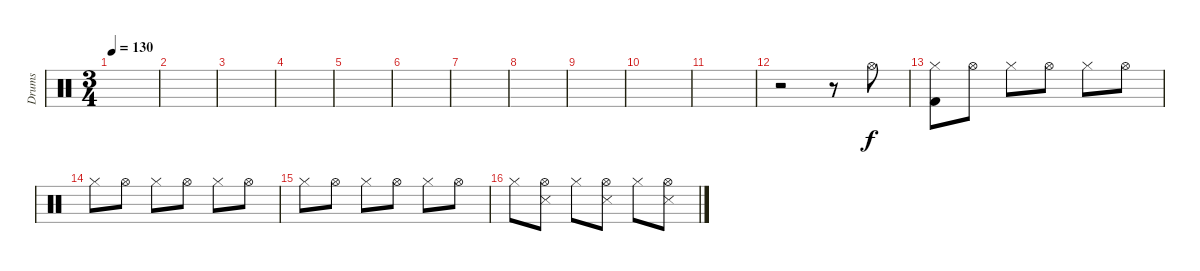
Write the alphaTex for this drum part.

\track ("Drums" "Drums") {instrument percussion}
\staff {score}
\articulation defaults
\ts (3 4)
\tempo 130
\clef neutral
\ks c
|
|
|
|
|
|
|
|
|
|
|
r.2 r.8 "Hi-Hat (open)".8 |
("Kick (hit) 2" "Hi-Hat (closed)").8 "Hi-Hat (open)".8 "Hi-Hat (closed)".8 "Hi-Hat (open)".8 "Hi-Hat (closed)".8 "Hi-Hat (open)".8 |
"Hi-Hat (closed)".8 "Hi-Hat (open)".8 "Hi-Hat (closed)".8 "Hi-Hat (open)".8 "Hi-Hat (closed)".8 "Hi-Hat (open)".8 |
"Hi-Hat (closed)".8 "Hi-Hat (open)".8 "Hi-Hat (closed)".8 "Hi-Hat (open)".8 "Hi-Hat (closed)".8 "Hi-Hat (open)".8 |
"Hi-Hat (closed)".8 ("Snare (side stick) 3" "Hi-Hat (open)").8 "Hi-Hat (closed)".8 ("Snare (side stick) 3" "Hi-Hat (open)").8 "Hi-Hat (closed)".8 ("Snare (side stick) 3" "Hi-Hat (open)").8
